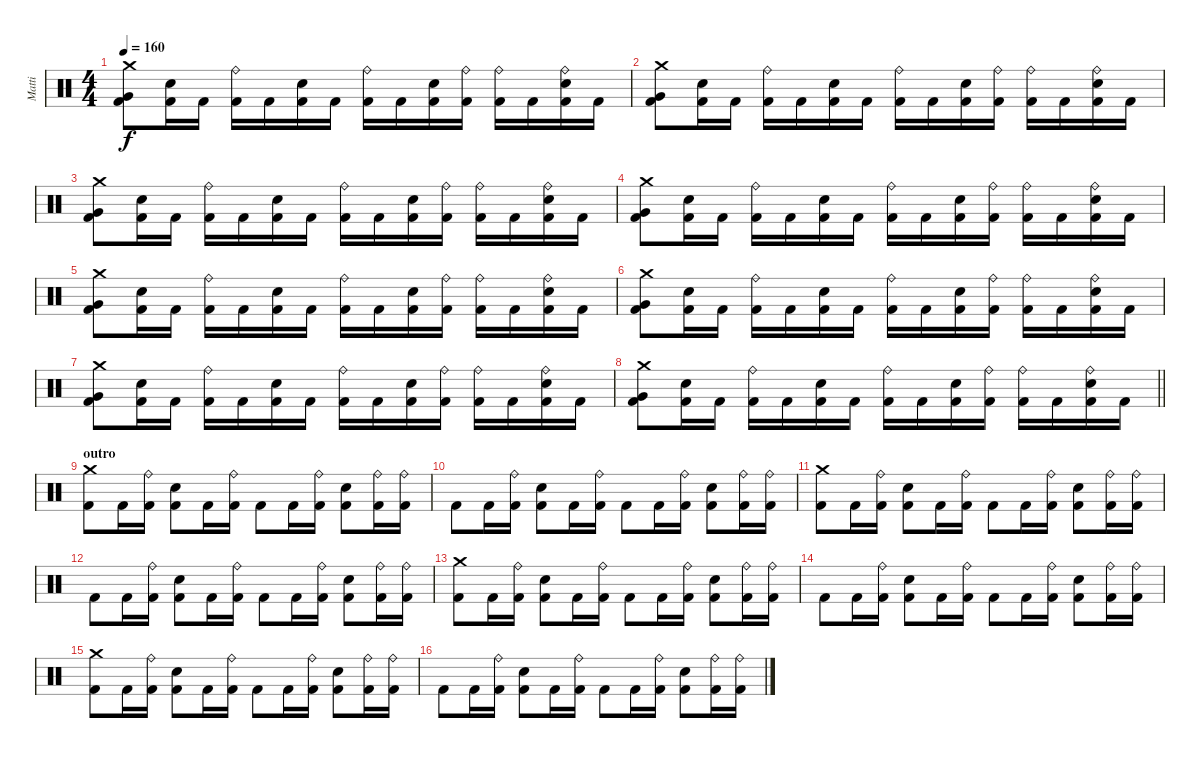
\track ("Matti" "Matti") {instrument percussion}
\staff {score}
\articulation defaults
\ts (4 4)
\tempo 160
\clef neutral
\ks c
("Crash medium (hit)" "Very Low Tom (hit)" "Kick (hit) 2").8{dy f} ("Electric Snare (hit)" "Kick (hit) 2").16 "Kick (hit) 2".16 ("Ride (bell)" "Kick (hit) 2").16 "Kick (hit) 2".16 ("Electric Snare (hit)" "Kick (hit) 2").16 "Kick (hit) 2".16 ("Ride (bell)" "Kick (hit) 2").16 "Kick (hit) 2".16 ("Electric Snare (hit)" "Kick (hit) 2").16 ("Ride (bell)" "Kick (hit) 2").16 ("Ride (bell)" "Kick (hit) 2").16 "Kick (hit) 2".16 ("Ride (bell)" "Electric Snare (hit)" "Kick (hit) 2").16 "Kick (hit) 2".16 |
("Crash medium (hit)" "Very Low Tom (hit)" "Kick (hit) 2").8 ("Electric Snare (hit)" "Kick (hit) 2").16 "Kick (hit) 2".16 ("Ride (bell)" "Kick (hit) 2").16 "Kick (hit) 2".16 ("Electric Snare (hit)" "Kick (hit) 2").16 "Kick (hit) 2".16 ("Ride (bell)" "Kick (hit) 2").16 "Kick (hit) 2".16 ("Electric Snare (hit)" "Kick (hit) 2").16 ("Ride (bell)" "Kick (hit) 2").16 ("Ride (bell)" "Kick (hit) 2").16 "Kick (hit) 2".16 ("Ride (bell)" "Electric Snare (hit)" "Kick (hit) 2").16 "Kick (hit) 2".16 |
("Crash medium (hit)" "Very Low Tom (hit)" "Kick (hit) 2").8 ("Electric Snare (hit)" "Kick (hit) 2").16 "Kick (hit) 2".16 ("Ride (bell)" "Kick (hit) 2").16 "Kick (hit) 2".16 ("Electric Snare (hit)" "Kick (hit) 2").16 "Kick (hit) 2".16 ("Ride (bell)" "Kick (hit) 2").16 "Kick (hit) 2".16 ("Electric Snare (hit)" "Kick (hit) 2").16 ("Ride (bell)" "Kick (hit) 2").16 ("Ride (bell)" "Kick (hit) 2").16 "Kick (hit) 2".16 ("Ride (bell)" "Electric Snare (hit)" "Kick (hit) 2").16 "Kick (hit) 2".16 |
("Crash medium (hit)" "Very Low Tom (hit)" "Kick (hit) 2").8 ("Electric Snare (hit)" "Kick (hit) 2").16 "Kick (hit) 2".16 ("Ride (bell)" "Kick (hit) 2").16 "Kick (hit) 2".16 ("Electric Snare (hit)" "Kick (hit) 2").16 "Kick (hit) 2".16 ("Ride (bell)" "Kick (hit) 2").16 "Kick (hit) 2".16 ("Electric Snare (hit)" "Kick (hit) 2").16 ("Ride (bell)" "Kick (hit) 2").16 ("Ride (bell)" "Kick (hit) 2").16 "Kick (hit) 2".16 ("Ride (bell)" "Electric Snare (hit)" "Kick (hit) 2").16 "Kick (hit) 2".16 |
("Crash medium (hit)" "Very Low Tom (hit)" "Kick (hit) 2").8 ("Electric Snare (hit)" "Kick (hit) 2").16 "Kick (hit) 2".16 ("Ride (bell)" "Kick (hit) 2").16 "Kick (hit) 2".16 ("Electric Snare (hit)" "Kick (hit) 2").16 "Kick (hit) 2".16 ("Ride (bell)" "Kick (hit) 2").16 "Kick (hit) 2".16 ("Electric Snare (hit)" "Kick (hit) 2").16 ("Ride (bell)" "Kick (hit) 2").16 ("Ride (bell)" "Kick (hit) 2").16 "Kick (hit) 2".16 ("Ride (bell)" "Electric Snare (hit)" "Kick (hit) 2").16 "Kick (hit) 2".16 |
("Crash medium (hit)" "Very Low Tom (hit)" "Kick (hit) 2").8 ("Electric Snare (hit)" "Kick (hit) 2").16 "Kick (hit) 2".16 ("Ride (bell)" "Kick (hit) 2").16 "Kick (hit) 2".16 ("Electric Snare (hit)" "Kick (hit) 2").16 "Kick (hit) 2".16 ("Ride (bell)" "Kick (hit) 2").16 "Kick (hit) 2".16 ("Electric Snare (hit)" "Kick (hit) 2").16 ("Ride (bell)" "Kick (hit) 2").16 ("Ride (bell)" "Kick (hit) 2").16 "Kick (hit) 2".16 ("Ride (bell)" "Electric Snare (hit)" "Kick (hit) 2").16 "Kick (hit) 2".16 |
("Crash medium (hit)" "Very Low Tom (hit)" "Kick (hit) 2").8 ("Electric Snare (hit)" "Kick (hit) 2").16 "Kick (hit) 2".16 ("Ride (bell)" "Kick (hit) 2").16 "Kick (hit) 2".16 ("Electric Snare (hit)" "Kick (hit) 2").16 "Kick (hit) 2".16 ("Ride (bell)" "Kick (hit) 2").16 "Kick (hit) 2".16 ("Electric Snare (hit)" "Kick (hit) 2").16 ("Ride (bell)" "Kick (hit) 2").16 ("Ride (bell)" "Kick (hit) 2").16 "Kick (hit) 2".16 ("Ride (bell)" "Electric Snare (hit)" "Kick (hit) 2").16 "Kick (hit) 2".16 |
\barLineRight lightlight
("Crash medium (hit)" "Very Low Tom (hit)" "Kick (hit) 2").8 ("Electric Snare (hit)" "Kick (hit) 2").16 "Kick (hit) 2".16 ("Ride (bell)" "Kick (hit) 2").16 "Kick (hit) 2".16 ("Electric Snare (hit)" "Kick (hit) 2").16 "Kick (hit) 2".16 ("Ride (bell)" "Kick (hit) 2").16 "Kick (hit) 2".16 ("Electric Snare (hit)" "Kick (hit) 2").16 ("Ride (bell)" "Kick (hit) 2").16 ("Ride (bell)" "Kick (hit) 2").16 "Kick (hit) 2".16 ("Ride (bell)" "Electric Snare (hit)" "Kick (hit) 2").16 "Kick (hit) 2".16 |
\section ("" "outro")
("Crash medium (hit)" "Kick (hit) 2").8 "Kick (hit) 2".16 ("Ride (bell)" "Kick (hit) 2").16 ("Electric Snare (hit)" "Kick (hit) 2").8 "Kick (hit) 2".16 ("Ride (bell)" "Kick (hit) 2").16 "Kick (hit) 2".8 "Kick (hit) 2".16 ("Ride (bell)" "Kick (hit) 2").16 ("Electric Snare (hit)" "Kick (hit) 2").8 ("Ride (bell)" "Kick (hit) 2").16 ("Ride (bell)" "Kick (hit) 2").16 |
"Kick (hit) 2".8 "Kick (hit) 2".16 ("Ride (bell)" "Kick (hit) 2").16 ("Electric Snare (hit)" "Kick (hit) 2").8 "Kick (hit) 2".16 ("Ride (bell)" "Kick (hit) 2").16 "Kick (hit) 2".8 "Kick (hit) 2".16 ("Ride (bell)" "Kick (hit) 2").16 ("Electric Snare (hit)" "Kick (hit) 2").8 ("Ride (bell)" "Kick (hit) 2").16 ("Ride (bell)" "Kick (hit) 2").16 |
("Crash medium (hit)" "Kick (hit) 2").8 "Kick (hit) 2".16 ("Ride (bell)" "Kick (hit) 2").16 ("Electric Snare (hit)" "Kick (hit) 2").8 "Kick (hit) 2".16 ("Ride (bell)" "Kick (hit) 2").16 "Kick (hit) 2".8 "Kick (hit) 2".16 ("Ride (bell)" "Kick (hit) 2").16 ("Electric Snare (hit)" "Kick (hit) 2").8 ("Ride (bell)" "Kick (hit) 2").16 ("Ride (bell)" "Kick (hit) 2").16 |
"Kick (hit) 2".8 "Kick (hit) 2".16 ("Ride (bell)" "Kick (hit) 2").16 ("Electric Snare (hit)" "Kick (hit) 2").8 "Kick (hit) 2".16 ("Ride (bell)" "Kick (hit) 2").16 "Kick (hit) 2".8 "Kick (hit) 2".16 ("Ride (bell)" "Kick (hit) 2").16 ("Electric Snare (hit)" "Kick (hit) 2").8 ("Ride (bell)" "Kick (hit) 2").16 ("Ride (bell)" "Kick (hit) 2").16 |
("Crash medium (hit)" "Kick (hit) 2").8 "Kick (hit) 2".16 ("Ride (bell)" "Kick (hit) 2").16 ("Electric Snare (hit)" "Kick (hit) 2").8 "Kick (hit) 2".16 ("Ride (bell)" "Kick (hit) 2").16 "Kick (hit) 2".8 "Kick (hit) 2".16 ("Ride (bell)" "Kick (hit) 2").16 ("Electric Snare (hit)" "Kick (hit) 2").8 ("Ride (bell)" "Kick (hit) 2").16 ("Ride (bell)" "Kick (hit) 2").16 |
"Kick (hit) 2".8 "Kick (hit) 2".16 ("Ride (bell)" "Kick (hit) 2").16 ("Electric Snare (hit)" "Kick (hit) 2").8 "Kick (hit) 2".16 ("Ride (bell)" "Kick (hit) 2").16 "Kick (hit) 2".8 "Kick (hit) 2".16 ("Ride (bell)" "Kick (hit) 2").16 ("Electric Snare (hit)" "Kick (hit) 2").8 ("Ride (bell)" "Kick (hit) 2").16 ("Ride (bell)" "Kick (hit) 2").16 |
("Crash medium (hit)" "Kick (hit) 2").8 "Kick (hit) 2".16 ("Ride (bell)" "Kick (hit) 2").16 ("Electric Snare (hit)" "Kick (hit) 2").8 "Kick (hit) 2".16 ("Ride (bell)" "Kick (hit) 2").16 "Kick (hit) 2".8 "Kick (hit) 2".16 ("Ride (bell)" "Kick (hit) 2").16 ("Electric Snare (hit)" "Kick (hit) 2").8 ("Ride (bell)" "Kick (hit) 2").16 ("Ride (bell)" "Kick (hit) 2").16 |
"Kick (hit) 2".8 "Kick (hit) 2".16 ("Ride (bell)" "Kick (hit) 2").16 ("Electric Snare (hit)" "Kick (hit) 2").8 "Kick (hit) 2".16 ("Ride (bell)" "Kick (hit) 2").16 "Kick (hit) 2".8 "Kick (hit) 2".16 ("Ride (bell)" "Kick (hit) 2").16 ("Electric Snare (hit)" "Kick (hit) 2").8 ("Ride (bell)" "Kick (hit) 2").16 ("Ride (bell)" "Kick (hit) 2").16
